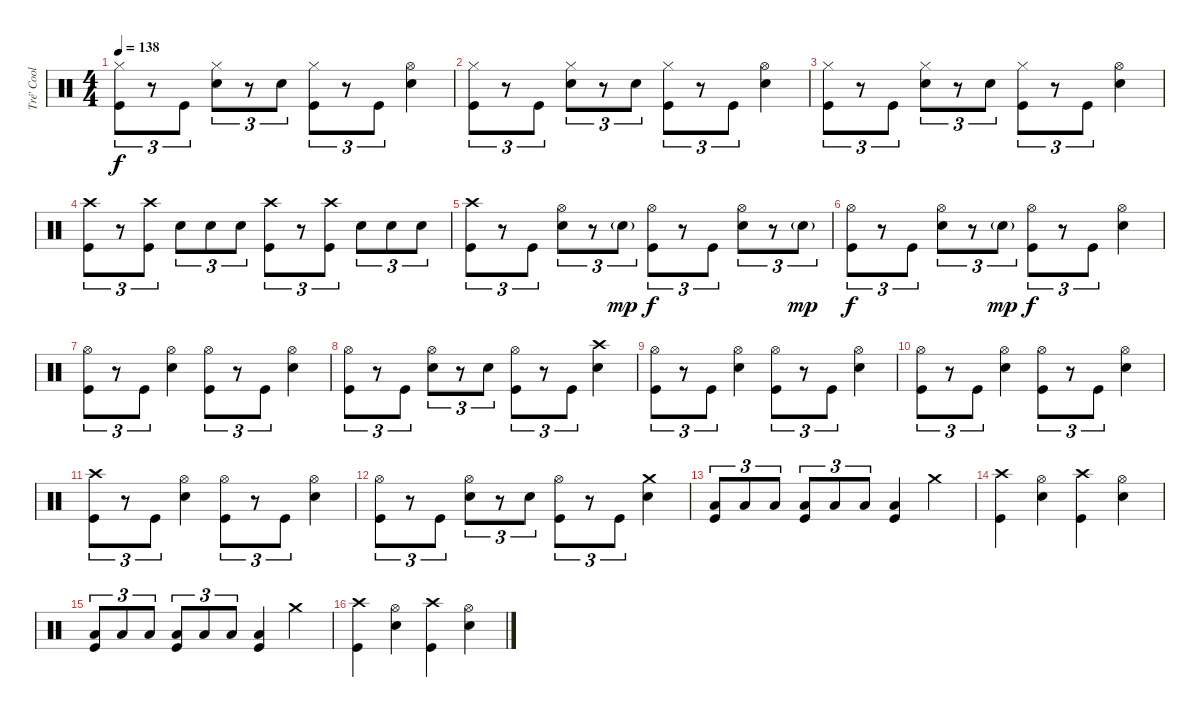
\track ("Tré' Cool" "Tré' Cool") {instrument percussion}
\staff {score}
\articulation defaults
\ts (4 4)
\tempo 138
\clef neutral
\ks c
("Hi-Hat (closed)" "Kick (hit)").8{tu (3 2) dy f} r.8{tu (3 2)} "Kick (hit)".8{tu (3 2)} ("Hi-Hat (closed)" "Electric Snare (hit)").8{tu (3 2)} r.8{tu (3 2)} "Electric Snare (hit)".8{tu (3 2)} ("Hi-Hat (closed)" "Kick (hit)").8{tu (3 2)} r.8{tu (3 2)} "Kick (hit)".8{tu (3 2)} ("Hi-Hat (open)" "Electric Snare (hit)").4 |
("Hi-Hat (closed)" "Kick (hit)").8{tu (3 2)} r.8{tu (3 2)} "Kick (hit)".8{tu (3 2)} ("Hi-Hat (closed)" "Electric Snare (hit)").8{tu (3 2)} r.8{tu (3 2)} "Electric Snare (hit)".8{tu (3 2)} ("Hi-Hat (closed)" "Kick (hit)").8{tu (3 2)} r.8{tu (3 2)} "Kick (hit)".8{tu (3 2)} ("Hi-Hat (open)" "Electric Snare (hit)").4 |
("Hi-Hat (closed)" "Kick (hit)").8{tu (3 2)} r.8{tu (3 2)} "Kick (hit)".8{tu (3 2)} ("Hi-Hat (closed)" "Electric Snare (hit)").8{tu (3 2)} r.8{tu (3 2)} "Electric Snare (hit)".8{tu (3 2)} ("Hi-Hat (closed)" "Kick (hit)").8{tu (3 2)} r.8{tu (3 2)} "Kick (hit)".8{tu (3 2)} ("Hi-Hat (open)" "Electric Snare (hit)").4 |
("Crash high (hit)" "Kick (hit)").8{tu (3 2)} r.8{tu (3 2)} ("Crash high (hit)" "Kick (hit)").8{tu (3 2)} "Electric Snare (hit)".8{tu (3 2)} "Electric Snare (hit)".8{tu (3 2)} "Electric Snare (hit)".8{tu (3 2)} ("Crash high (hit)" "Kick (hit)").8{tu (3 2)} r.8{tu (3 2)} ("Crash high (hit)" "Kick (hit)").8{tu (3 2)} "Electric Snare (hit)".8{tu (3 2)} "Electric Snare (hit)".8{tu (3 2)} "Electric Snare (hit)".8{tu (3 2)} |
("Crash high (hit)" "Kick (hit)").8{tu (3 2)} r.8{tu (3 2)} "Kick (hit)".8{tu (3 2)} ("Hi-Hat (open)" "Electric Snare (hit)").8{tu (3 2)} r.8{tu (3 2)} "Electric Snare (hit)"{g}.8{tu (3 2) dy mp} ("Hi-Hat (open)" "Kick (hit)").8{tu (3 2) dy f} r.8{tu (3 2)} "Kick (hit)".8{tu (3 2)} ("Hi-Hat (open)" "Electric Snare (hit)").8{tu (3 2)} r.8{tu (3 2)} "Electric Snare (hit)"{g}.8{tu (3 2) dy mp} |
("Hi-Hat (open)" "Kick (hit)").8{tu (3 2) dy f} r.8{tu (3 2)} "Kick (hit)".8{tu (3 2)} ("Hi-Hat (open)" "Electric Snare (hit)").8{tu (3 2)} r.8{tu (3 2)} "Electric Snare (hit)"{g}.8{tu (3 2) dy mp} ("Hi-Hat (open)" "Kick (hit)").8{tu (3 2) dy f} r.8{tu (3 2)} "Kick (hit)".8{tu (3 2)} ("Hi-Hat (open)" "Electric Snare (hit)").4 |
("Hi-Hat (open)" "Kick (hit)").8{tu (3 2)} r.8{tu (3 2)} "Kick (hit)".8{tu (3 2)} ("Hi-Hat (open)" "Electric Snare (hit)").4 ("Hi-Hat (open)" "Kick (hit)").8{tu (3 2)} r.8{tu (3 2)} "Kick (hit)".8{tu (3 2)} ("Hi-Hat (open)" "Electric Snare (hit)").4 |
("Hi-Hat (open)" "Kick (hit)").8{tu (3 2)} r.8{tu (3 2)} "Kick (hit)".8{tu (3 2)} ("Hi-Hat (open)" "Electric Snare (hit)").8{tu (3 2)} r.8{tu (3 2)} "Electric Snare (hit)".8{tu (3 2)} ("Hi-Hat (open)" "Kick (hit)").8{tu (3 2)} r.8{tu (3 2)} "Kick (hit)".8{tu (3 2)} ("Crash high (hit)" "Electric Snare (hit)").4 |
("Hi-Hat (open)" "Kick (hit)").8{tu (3 2)} r.8{tu (3 2)} "Kick (hit)".8{tu (3 2)} ("Hi-Hat (open)" "Electric Snare (hit)").4 ("Hi-Hat (open)" "Kick (hit)").8{tu (3 2)} r.8{tu (3 2)} "Kick (hit)".8{tu (3 2)} ("Hi-Hat (open)" "Electric Snare (hit)").4 |
("Hi-Hat (open)" "Kick (hit)").8{tu (3 2)} r.8{tu (3 2)} "Kick (hit)".8{tu (3 2)} ("Hi-Hat (open)" "Electric Snare (hit)").4 ("Hi-Hat (open)" "Kick (hit)").8{tu (3 2)} r.8{tu (3 2)} "Kick (hit)".8{tu (3 2)} ("Hi-Hat (open)" "Electric Snare (hit)").4 |
("Crash high (hit)" "Kick (hit)").8{tu (3 2)} r.8{tu (3 2)} "Kick (hit)".8{tu (3 2)} ("Hi-Hat (open)" "Electric Snare (hit)").4 ("Hi-Hat (open)" "Kick (hit)").8{tu (3 2)} r.8{tu (3 2)} "Kick (hit)".8{tu (3 2)} ("Hi-Hat (open)" "Electric Snare (hit)").4 |
("Hi-Hat (open)" "Kick (hit)").8{tu (3 2)} r.8{tu (3 2)} "Kick (hit)".8{tu (3 2)} ("Hi-Hat (open)" "Electric Snare (hit)").8{tu (3 2)} r.8{tu (3 2)} "Electric Snare (hit)".8{tu (3 2)} ("Hi-Hat (open)" "Kick (hit)").8{tu (3 2)} r.8{tu (3 2)} "Kick (hit)".8{tu (3 2)} ("Crash medium (hit)" "Electric Snare (hit)").4 |
("Low Floor Tom (hit)" "Kick (hit)").8{tu (3 2)} "Low Floor Tom (hit)".8{tu (3 2)} "Low Floor Tom (hit)".8{tu (3 2)} ("Low Floor Tom (hit)" "Kick (hit)").8{tu (3 2)} "Low Floor Tom (hit)".8{tu (3 2)} "Low Floor Tom (hit)".8{tu (3 2)} ("Low Floor Tom (hit)" "Kick (hit)").4 "Crash medium (hit)".4 |
("Crash high (hit)" "Kick (hit)").4 ("Hi-Hat (open)" "Electric Snare (hit)").4 ("Crash high (hit)" "Kick (hit)").4 ("Hi-Hat (open)" "Electric Snare (hit)").4 |
("Low Floor Tom (hit)" "Kick (hit)").8{tu (3 2)} "Low Floor Tom (hit)".8{tu (3 2)} "Low Floor Tom (hit)".8{tu (3 2)} ("Low Floor Tom (hit)" "Kick (hit)").8{tu (3 2)} "Low Floor Tom (hit)".8{tu (3 2)} "Low Floor Tom (hit)".8{tu (3 2)} ("Low Floor Tom (hit)" "Kick (hit)").4 "Crash medium (hit)".4 |
("Crash high (hit)" "Kick (hit)").4 ("Hi-Hat (open)" "Electric Snare (hit)").4 ("Crash high (hit)" "Kick (hit)").4 ("Hi-Hat (open)" "Electric Snare (hit)").4
